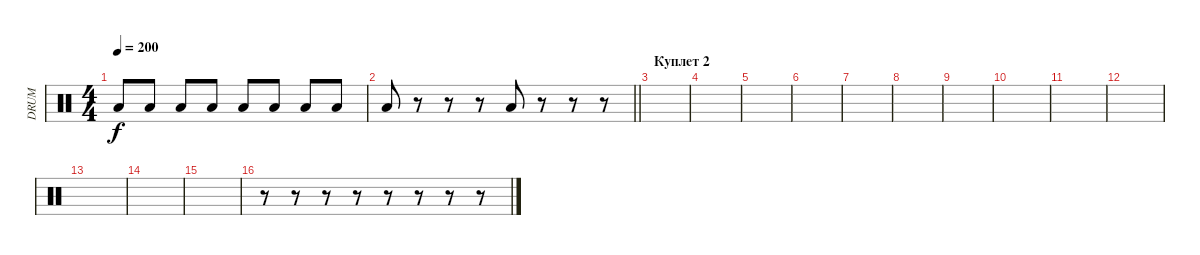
\track ("DRUM" "DRUM") {instrument percussion}
\staff {score}
\articulation defaults
\ts (4 4)
\tempo 200
\clef neutral
\ks c "Low Tom (hit)".8{dy f} "Low Floor Tom (hit)".8 "Low Tom (hit)".8 "Low Floor Tom (hit)".8 "Low Tom (hit)".8 "Low Floor Tom (hit)".8 "Low Tom (hit)".8 "Low Floor Tom (hit)".8
|
\barLineRight lightlight "Low Tom (hit)".8
r.8 r.8 r.8 "Low Tom (hit)".8 r.8 r.8 r.8 |
\section ("" "Куплет 2")
|
|
|
|
|
|
|
|
|
|
|
|
|
r.8 r.8 r.8 r.8 r.8 r.8 r.8 r.8
